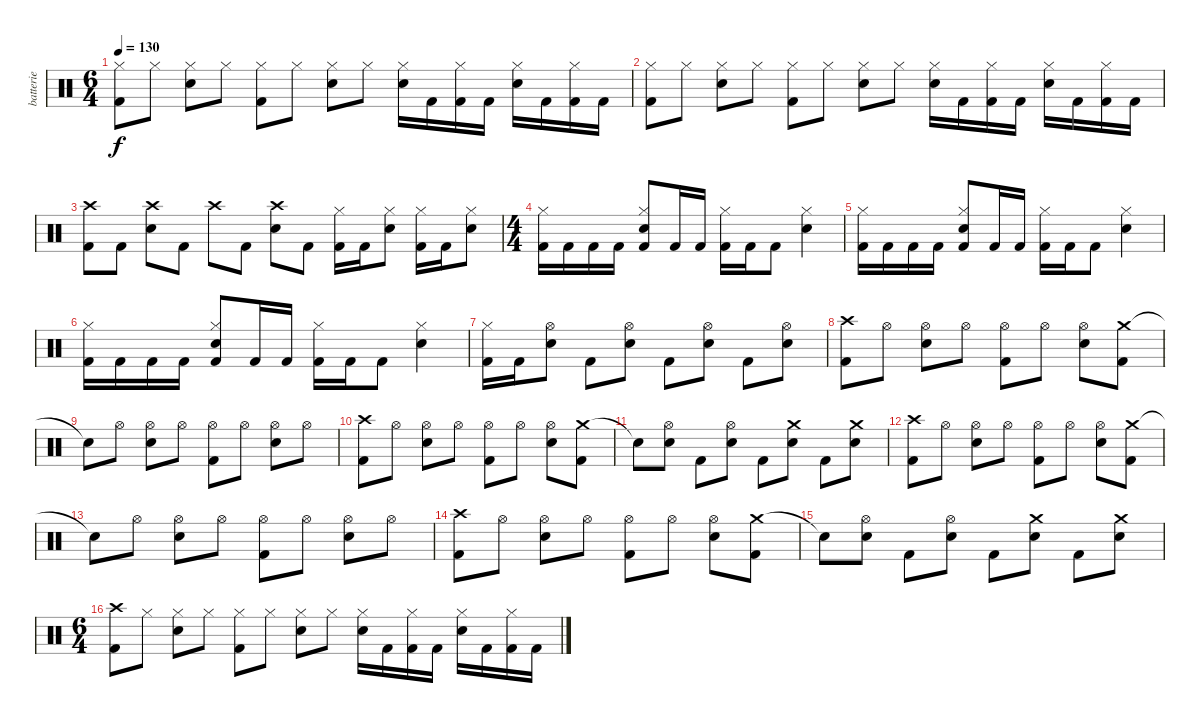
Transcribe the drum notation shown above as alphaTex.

\track ("batterie" "batterie") {instrument percussion}
\staff {score}
\articulation defaults
\ts (6 4)
\tempo 130
\clef neutral
\ks c
("Kick (hit) 2" "Hi-Hat (closed)").8{dy f} "Hi-Hat (closed)".8 ("Snare (hit) 2" "Hi-Hat (closed)").8 "Hi-Hat (closed)".8 ("Kick (hit) 2" "Hi-Hat (closed)").8 "Hi-Hat (closed)".8 ("Snare (hit) 2" "Hi-Hat (closed)").8 "Hi-Hat (closed)".8 ("Snare (hit) 2" "Hi-Hat (closed)").16 "Kick (hit) 2".16 ("Kick (hit) 2" "Hi-Hat (closed)").16 "Kick (hit) 2".16 ("Snare (hit) 2" "Hi-Hat (closed)").16 "Kick (hit) 2".16 ("Kick (hit) 2" "Hi-Hat (closed)").16 "Kick (hit) 2".16 |
("Kick (hit) 2" "Hi-Hat (closed)").8 "Hi-Hat (closed)".8 ("Snare (hit) 2" "Hi-Hat (closed)").8 "Hi-Hat (closed)".8 ("Kick (hit) 2" "Hi-Hat (closed)").8 "Hi-Hat (closed)".8 ("Snare (hit) 2" "Hi-Hat (closed)").8 "Hi-Hat (closed)".8 ("Snare (hit) 2" "Hi-Hat (closed)").16 "Kick (hit) 2".16 ("Kick (hit) 2" "Hi-Hat (closed)").16 "Kick (hit) 2".16 ("Snare (hit) 2" "Hi-Hat (closed)").16 "Kick (hit) 2".16 ("Kick (hit) 2" "Hi-Hat (closed)").16 "Kick (hit) 2".16 |
("Crash high (hit)" "Kick (hit) 2").8 "Kick (hit) 2".8 ("Crash high (hit)" "Snare (hit) 2").8 "Kick (hit) 2".8 "Crash high (hit)".8 "Kick (hit) 2".8 ("Crash high (hit)" "Snare (hit) 2").8 "Kick (hit) 2".8 ("Kick (hit) 2" "Hi-Hat (closed)").16 "Kick (hit) 2".16 ("Snare (hit) 2" "Hi-Hat (closed)").8 ("Kick (hit) 2" "Hi-Hat (closed)").16 "Kick (hit) 2".16 ("Snare (hit) 2" "Hi-Hat (closed)").8 |
\ts (4 4)
("Kick (hit) 2" "Hi-Hat (closed)").16 "Kick (hit) 2".16 "Kick (hit) 2".16 "Kick (hit) 2".16 ("Snare (hit) 2" "Kick (hit) 2" "Hi-Hat (closed)").8 "Kick (hit) 2".16 "Kick (hit) 2".16 ("Kick (hit) 2" "Hi-Hat (closed)").16 "Kick (hit) 2".16 "Kick (hit) 2".8 ("Snare (hit) 2" "Hi-Hat (closed)").4 |
("Kick (hit) 2" "Hi-Hat (closed)").16 "Kick (hit) 2".16 "Kick (hit) 2".16 "Kick (hit) 2".16 ("Snare (hit) 2" "Kick (hit) 2" "Hi-Hat (closed)").8 "Kick (hit) 2".16 "Kick (hit) 2".16 ("Kick (hit) 2" "Hi-Hat (closed)").16 "Kick (hit) 2".16 "Kick (hit) 2".8 ("Snare (hit) 2" "Hi-Hat (closed)").4 |
("Kick (hit) 2" "Hi-Hat (closed)").16 "Kick (hit) 2".16 "Kick (hit) 2".16 "Kick (hit) 2".16 ("Snare (hit) 2" "Kick (hit) 2" "Hi-Hat (closed)").8 "Kick (hit) 2".16 "Kick (hit) 2".16 ("Kick (hit) 2" "Hi-Hat (closed)").16 "Kick (hit) 2".16 "Kick (hit) 2".8 ("Snare (hit) 2" "Hi-Hat (closed)").4 |
("Kick (hit) 2" "Hi-Hat (closed)").16 "Kick (hit) 2".16 ("Snare (hit) 2" "Hi-Hat (open)").8 "Kick (hit) 2".8 ("Snare (hit) 2" "Hi-Hat (open)").8 "Kick (hit) 2".8 ("Snare (hit) 2" "Hi-Hat (open)").8 "Kick (hit) 2".8 ("Snare (hit) 2" "Hi-Hat (open)").8 |
("Crash high (hit)" "Kick (hit) 2").8 "Hi-Hat (open)".8 ("Snare (hit) 2" "Hi-Hat (open)").8 "Hi-Hat (open)".8 ("Kick (hit) 2" "Hi-Hat (open)").8 "Hi-Hat (open)".8 ("Snare (hit) 2" "Hi-Hat (open)").8 ("Crash medium (hit)" "Kick (hit) 2").8 |
"Snare (hit)"{t}.8 "Hi-Hat (open)".8 ("Snare (hit) 2" "Hi-Hat (open)").8 "Hi-Hat (open)".8 ("Kick (hit) 2" "Hi-Hat (open)").8 "Hi-Hat (open)".8 ("Snare (hit) 2" "Hi-Hat (open)").8 "Hi-Hat (open)".8 |
("Crash high (hit)" "Kick (hit) 2").8 "Hi-Hat (open)".8 ("Snare (hit) 2" "Hi-Hat (open)").8 "Hi-Hat (open)".8 ("Kick (hit) 2" "Hi-Hat (open)").8 "Hi-Hat (open)".8 ("Snare (hit) 2" "Hi-Hat (open)").8 ("Crash medium (hit)" "Kick (hit) 2").8 |
"Snare (hit)"{t}.8 ("Snare (hit) 2" "Hi-Hat (open)").8 "Kick (hit) 2".8 ("Snare (hit) 2" "Hi-Hat (open)").8 "Kick (hit) 2".8 ("Crash medium (hit)" "Snare (hit) 2").8 "Kick (hit) 2".8 ("Crash medium (hit)" "Snare (hit) 2").8 |
("Crash high (hit)" "Kick (hit) 2").8 "Hi-Hat (open)".8 ("Snare (hit) 2" "Hi-Hat (open)").8 "Hi-Hat (open)".8 ("Kick (hit) 2" "Hi-Hat (open)").8 "Hi-Hat (open)".8 ("Snare (hit) 2" "Hi-Hat (open)").8 ("Crash medium (hit)" "Kick (hit) 2").8 |
"Snare (hit)"{t}.8 "Hi-Hat (open)".8 ("Snare (hit) 2" "Hi-Hat (open)").8 "Hi-Hat (open)".8 ("Kick (hit) 2" "Hi-Hat (open)").8 "Hi-Hat (open)".8 ("Snare (hit) 2" "Hi-Hat (open)").8 "Hi-Hat (open)".8 |
("Crash high (hit)" "Kick (hit) 2").8 "Hi-Hat (open)".8 ("Snare (hit) 2" "Hi-Hat (open)").8 "Hi-Hat (open)".8 ("Kick (hit) 2" "Hi-Hat (open)").8 "Hi-Hat (open)".8 ("Snare (hit) 2" "Hi-Hat (open)").8 ("Crash medium (hit)" "Kick (hit) 2").8 |
"Snare (hit)"{t}.8 ("Snare (hit) 2" "Hi-Hat (open)").8 "Kick (hit) 2".8 ("Snare (hit) 2" "Hi-Hat (open)").8 "Kick (hit) 2".8 ("Crash medium (hit)" "Snare (hit) 2").8 "Kick (hit) 2".8 ("Crash medium (hit)" "Snare (hit) 2").8 |
\ts (6 4)
("Crash high (hit)" "Kick (hit) 2").8 "Hi-Hat (closed)".8 ("Snare (hit) 2" "Hi-Hat (closed)").8 "Hi-Hat (closed)".8 ("Kick (hit) 2" "Hi-Hat (closed)").8 "Hi-Hat (closed)".8 ("Snare (hit) 2" "Hi-Hat (closed)").8 "Hi-Hat (closed)".8 ("Snare (hit) 2" "Hi-Hat (closed)").16 "Kick (hit) 2".16 ("Kick (hit) 2" "Hi-Hat (closed)").16 "Kick (hit) 2".16 ("Snare (hit) 2" "Hi-Hat (closed)").16 "Kick (hit) 2".16 ("Kick (hit) 2" "Hi-Hat (closed)").16 "Kick (hit) 2".16
